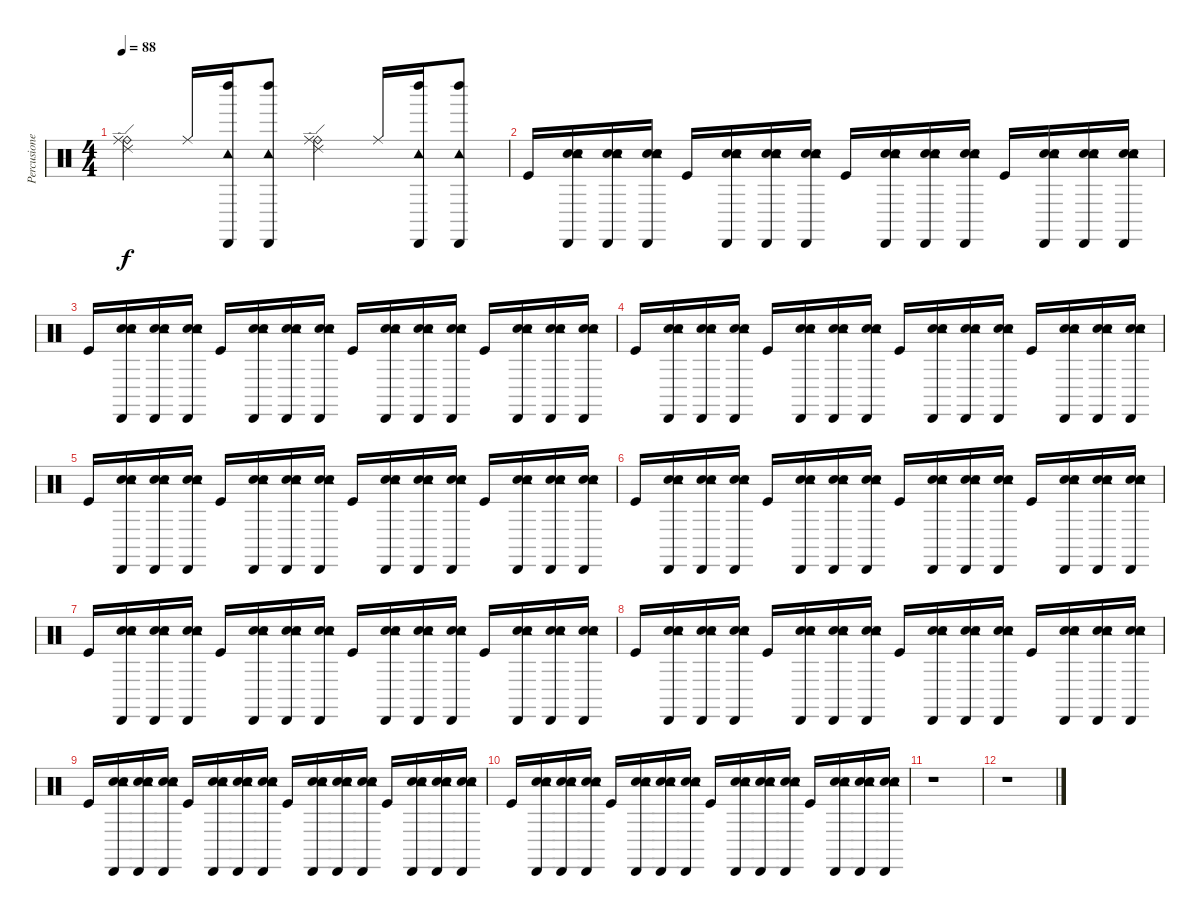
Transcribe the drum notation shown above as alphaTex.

\track ("Percusiones" "Percusione") {instrument percussion}
\staff {score}
\articulation defaults
\ts (4 4)
\tempo 88
\clef neutral
\ks c
("Ride (bell)" "Ride (middle)" "Ride (edge) 2").4{dy f} "Ride (middle)".16 ("Tambourine (hit)" "Left Maraca (hit)" "Cabasa (hit)").16 ("Tambourine (hit)" "Left Maraca (hit)" "Cabasa (hit)").8 ("Ride (bell)" "Ride (middle)" "Ride (edge) 2").4 "Ride (middle)".16 ("Tambourine (hit)" "Left Maraca (hit)" "Cabasa (hit)").16 ("Tambourine (hit)" "Left Maraca (hit)" "Cabasa (hit)").8 |
"Kick (hit)".16 ("Electric Snare (hit)" "Tambourine (hit)" "Snare (hit) 2" "Cabasa (hit)").16 ("Electric Snare (hit)" "Tambourine (hit)" "Snare (hit) 2" "Cabasa (hit)").16 ("Electric Snare (hit)" "Tambourine (hit)" "Snare (hit) 2" "Cabasa (hit)").16 "Kick (hit)".16 ("Electric Snare (hit)" "Tambourine (hit)" "Snare (hit) 2" "Cabasa (hit)").16 ("Electric Snare (hit)" "Tambourine (hit)" "Snare (hit) 2" "Cabasa (hit)").16 ("Electric Snare (hit)" "Tambourine (hit)" "Snare (hit) 2" "Cabasa (hit)").16 "Kick (hit)".16 ("Electric Snare (hit)" "Tambourine (hit)" "Snare (hit) 2" "Cabasa (hit)").16 ("Electric Snare (hit)" "Tambourine (hit)" "Snare (hit) 2" "Cabasa (hit)").16 ("Electric Snare (hit)" "Tambourine (hit)" "Snare (hit) 2" "Cabasa (hit)").16 "Kick (hit)".16 ("Electric Snare (hit)" "Tambourine (hit)" "Snare (hit) 2" "Cabasa (hit)").16 ("Electric Snare (hit)" "Tambourine (hit)" "Snare (hit) 2" "Cabasa (hit)").16 ("Electric Snare (hit)" "Tambourine (hit)" "Snare (hit) 2" "Cabasa (hit)").16 |
"Kick (hit)".16 ("Electric Snare (hit)" "Tambourine (hit)" "Snare (hit) 2" "Cabasa (hit)").16 ("Electric Snare (hit)" "Tambourine (hit)" "Snare (hit) 2" "Cabasa (hit)").16 ("Electric Snare (hit)" "Tambourine (hit)" "Snare (hit) 2" "Cabasa (hit)").16 "Kick (hit)".16 ("Electric Snare (hit)" "Tambourine (hit)" "Snare (hit) 2" "Cabasa (hit)").16 ("Electric Snare (hit)" "Tambourine (hit)" "Snare (hit) 2" "Cabasa (hit)").16 ("Electric Snare (hit)" "Tambourine (hit)" "Snare (hit) 2" "Cabasa (hit)").16 "Kick (hit)".16 ("Electric Snare (hit)" "Tambourine (hit)" "Snare (hit) 2" "Cabasa (hit)").16 ("Electric Snare (hit)" "Tambourine (hit)" "Snare (hit) 2" "Cabasa (hit)").16 ("Electric Snare (hit)" "Tambourine (hit)" "Snare (hit) 2" "Cabasa (hit)").16 "Kick (hit)".16 ("Electric Snare (hit)" "Tambourine (hit)" "Snare (hit) 2" "Cabasa (hit)").16 ("Electric Snare (hit)" "Tambourine (hit)" "Snare (hit) 2" "Cabasa (hit)").16 ("Electric Snare (hit)" "Tambourine (hit)" "Snare (hit) 2" "Cabasa (hit)").16 |
"Kick (hit)".16 ("Electric Snare (hit)" "Tambourine (hit)" "Snare (hit) 2" "Cabasa (hit)").16 ("Electric Snare (hit)" "Tambourine (hit)" "Snare (hit) 2" "Cabasa (hit)").16 ("Electric Snare (hit)" "Tambourine (hit)" "Snare (hit) 2" "Cabasa (hit)").16 "Kick (hit)".16 ("Electric Snare (hit)" "Tambourine (hit)" "Snare (hit) 2" "Cabasa (hit)").16 ("Electric Snare (hit)" "Tambourine (hit)" "Snare (hit) 2" "Cabasa (hit)").16 ("Electric Snare (hit)" "Tambourine (hit)" "Snare (hit) 2" "Cabasa (hit)").16 "Kick (hit)".16 ("Electric Snare (hit)" "Tambourine (hit)" "Snare (hit) 2" "Cabasa (hit)").16 ("Electric Snare (hit)" "Tambourine (hit)" "Snare (hit) 2" "Cabasa (hit)").16 ("Electric Snare (hit)" "Tambourine (hit)" "Snare (hit) 2" "Cabasa (hit)").16 "Kick (hit)".16 ("Electric Snare (hit)" "Tambourine (hit)" "Snare (hit) 2" "Cabasa (hit)").16 ("Electric Snare (hit)" "Tambourine (hit)" "Snare (hit) 2" "Cabasa (hit)").16 ("Electric Snare (hit)" "Tambourine (hit)" "Snare (hit) 2" "Cabasa (hit)").16 |
"Kick (hit)".16 ("Electric Snare (hit)" "Tambourine (hit)" "Snare (hit) 2" "Cabasa (hit)").16 ("Electric Snare (hit)" "Tambourine (hit)" "Snare (hit) 2" "Cabasa (hit)").16 ("Electric Snare (hit)" "Tambourine (hit)" "Snare (hit) 2" "Cabasa (hit)").16 "Kick (hit)".16 ("Electric Snare (hit)" "Tambourine (hit)" "Snare (hit) 2" "Cabasa (hit)").16 ("Electric Snare (hit)" "Tambourine (hit)" "Snare (hit) 2" "Cabasa (hit)").16 ("Electric Snare (hit)" "Tambourine (hit)" "Snare (hit) 2" "Cabasa (hit)").16 "Kick (hit)".16 ("Electric Snare (hit)" "Tambourine (hit)" "Snare (hit) 2" "Cabasa (hit)").16 ("Electric Snare (hit)" "Tambourine (hit)" "Snare (hit) 2" "Cabasa (hit)").16 ("Electric Snare (hit)" "Tambourine (hit)" "Snare (hit) 2" "Cabasa (hit)").16 "Kick (hit)".16 ("Electric Snare (hit)" "Tambourine (hit)" "Snare (hit) 2" "Cabasa (hit)").16 ("Electric Snare (hit)" "Tambourine (hit)" "Snare (hit) 2" "Cabasa (hit)").16 ("Electric Snare (hit)" "Tambourine (hit)" "Snare (hit) 2" "Cabasa (hit)").16 |
"Kick (hit)".16 ("Electric Snare (hit)" "Tambourine (hit)" "Snare (hit) 2" "Cabasa (hit)").16 ("Electric Snare (hit)" "Tambourine (hit)" "Snare (hit) 2" "Cabasa (hit)").16 ("Electric Snare (hit)" "Tambourine (hit)" "Snare (hit) 2" "Cabasa (hit)").16 "Kick (hit)".16 ("Electric Snare (hit)" "Tambourine (hit)" "Snare (hit) 2" "Cabasa (hit)").16 ("Electric Snare (hit)" "Tambourine (hit)" "Snare (hit) 2" "Cabasa (hit)").16 ("Electric Snare (hit)" "Tambourine (hit)" "Snare (hit) 2" "Cabasa (hit)").16 "Kick (hit)".16 ("Electric Snare (hit)" "Tambourine (hit)" "Snare (hit) 2" "Cabasa (hit)").16 ("Electric Snare (hit)" "Tambourine (hit)" "Snare (hit) 2" "Cabasa (hit)").16 ("Electric Snare (hit)" "Tambourine (hit)" "Snare (hit) 2" "Cabasa (hit)").16 "Kick (hit)".16 ("Electric Snare (hit)" "Tambourine (hit)" "Snare (hit) 2" "Cabasa (hit)").16 ("Electric Snare (hit)" "Tambourine (hit)" "Snare (hit) 2" "Cabasa (hit)").16 ("Electric Snare (hit)" "Tambourine (hit)" "Snare (hit) 2" "Cabasa (hit)").16 |
"Kick (hit)".16 ("Electric Snare (hit)" "Tambourine (hit)" "Snare (hit) 2" "Cabasa (hit)").16 ("Electric Snare (hit)" "Tambourine (hit)" "Snare (hit) 2" "Cabasa (hit)").16 ("Electric Snare (hit)" "Tambourine (hit)" "Snare (hit) 2" "Cabasa (hit)").16 "Kick (hit)".16 ("Electric Snare (hit)" "Tambourine (hit)" "Snare (hit) 2" "Cabasa (hit)").16 ("Electric Snare (hit)" "Tambourine (hit)" "Snare (hit) 2" "Cabasa (hit)").16 ("Electric Snare (hit)" "Tambourine (hit)" "Snare (hit) 2" "Cabasa (hit)").16 "Kick (hit)".16 ("Electric Snare (hit)" "Tambourine (hit)" "Snare (hit) 2" "Cabasa (hit)").16 ("Electric Snare (hit)" "Tambourine (hit)" "Snare (hit) 2" "Cabasa (hit)").16 ("Electric Snare (hit)" "Tambourine (hit)" "Snare (hit) 2" "Cabasa (hit)").16 "Kick (hit)".16 ("Electric Snare (hit)" "Tambourine (hit)" "Snare (hit) 2" "Cabasa (hit)").16 ("Electric Snare (hit)" "Tambourine (hit)" "Snare (hit) 2" "Cabasa (hit)").16 ("Electric Snare (hit)" "Tambourine (hit)" "Snare (hit) 2" "Cabasa (hit)").16 |
"Kick (hit)".16 ("Electric Snare (hit)" "Tambourine (hit)" "Snare (hit) 2" "Cabasa (hit)").16 ("Electric Snare (hit)" "Tambourine (hit)" "Snare (hit) 2" "Cabasa (hit)").16 ("Electric Snare (hit)" "Tambourine (hit)" "Snare (hit) 2" "Cabasa (hit)").16 "Kick (hit)".16 ("Electric Snare (hit)" "Tambourine (hit)" "Snare (hit) 2" "Cabasa (hit)").16 ("Electric Snare (hit)" "Tambourine (hit)" "Snare (hit) 2" "Cabasa (hit)").16 ("Electric Snare (hit)" "Tambourine (hit)" "Snare (hit) 2" "Cabasa (hit)").16 "Kick (hit)".16 ("Electric Snare (hit)" "Tambourine (hit)" "Snare (hit) 2" "Cabasa (hit)").16 ("Electric Snare (hit)" "Tambourine (hit)" "Snare (hit) 2" "Cabasa (hit)").16 ("Electric Snare (hit)" "Tambourine (hit)" "Snare (hit) 2" "Cabasa (hit)").16 "Kick (hit)".16 ("Electric Snare (hit)" "Tambourine (hit)" "Snare (hit) 2" "Cabasa (hit)").16 ("Electric Snare (hit)" "Tambourine (hit)" "Snare (hit) 2" "Cabasa (hit)").16 ("Electric Snare (hit)" "Tambourine (hit)" "Snare (hit) 2" "Cabasa (hit)").16 |
"Kick (hit)".16 ("Electric Snare (hit)" "Tambourine (hit)" "Snare (hit) 2" "Cabasa (hit)").16 ("Electric Snare (hit)" "Tambourine (hit)" "Snare (hit) 2" "Cabasa (hit)").16 ("Electric Snare (hit)" "Tambourine (hit)" "Snare (hit) 2" "Cabasa (hit)").16 "Kick (hit)".16 ("Electric Snare (hit)" "Tambourine (hit)" "Snare (hit) 2" "Cabasa (hit)").16 ("Electric Snare (hit)" "Tambourine (hit)" "Snare (hit) 2" "Cabasa (hit)").16 ("Electric Snare (hit)" "Tambourine (hit)" "Snare (hit) 2" "Cabasa (hit)").16 "Kick (hit)".16 ("Electric Snare (hit)" "Tambourine (hit)" "Snare (hit) 2" "Cabasa (hit)").16 ("Electric Snare (hit)" "Tambourine (hit)" "Snare (hit) 2" "Cabasa (hit)").16 ("Electric Snare (hit)" "Tambourine (hit)" "Snare (hit) 2" "Cabasa (hit)").16 "Kick (hit)".16 ("Electric Snare (hit)" "Tambourine (hit)" "Snare (hit) 2" "Cabasa (hit)").16 ("Electric Snare (hit)" "Tambourine (hit)" "Snare (hit) 2" "Cabasa (hit)").16 ("Electric Snare (hit)" "Tambourine (hit)" "Snare (hit) 2" "Cabasa (hit)").16 |
"Kick (hit)".16 ("Electric Snare (hit)" "Tambourine (hit)" "Snare (hit) 2" "Cabasa (hit)").16 ("Electric Snare (hit)" "Tambourine (hit)" "Snare (hit) 2" "Cabasa (hit)").16 ("Electric Snare (hit)" "Tambourine (hit)" "Snare (hit) 2" "Cabasa (hit)").16 "Kick (hit)".16 ("Electric Snare (hit)" "Tambourine (hit)" "Snare (hit) 2" "Cabasa (hit)").16 ("Electric Snare (hit)" "Tambourine (hit)" "Snare (hit) 2" "Cabasa (hit)").16 ("Electric Snare (hit)" "Tambourine (hit)" "Snare (hit) 2" "Cabasa (hit)").16 "Kick (hit)".16 ("Electric Snare (hit)" "Tambourine (hit)" "Snare (hit) 2" "Cabasa (hit)").16 ("Electric Snare (hit)" "Tambourine (hit)" "Snare (hit) 2" "Cabasa (hit)").16 ("Electric Snare (hit)" "Tambourine (hit)" "Snare (hit) 2" "Cabasa (hit)").16 "Kick (hit)".16 ("Electric Snare (hit)" "Tambourine (hit)" "Snare (hit) 2" "Cabasa (hit)").16 ("Electric Snare (hit)" "Tambourine (hit)" "Snare (hit) 2" "Cabasa (hit)").16 ("Electric Snare (hit)" "Tambourine (hit)" "Snare (hit) 2" "Cabasa (hit)").16 |
r.1 |
r.1
